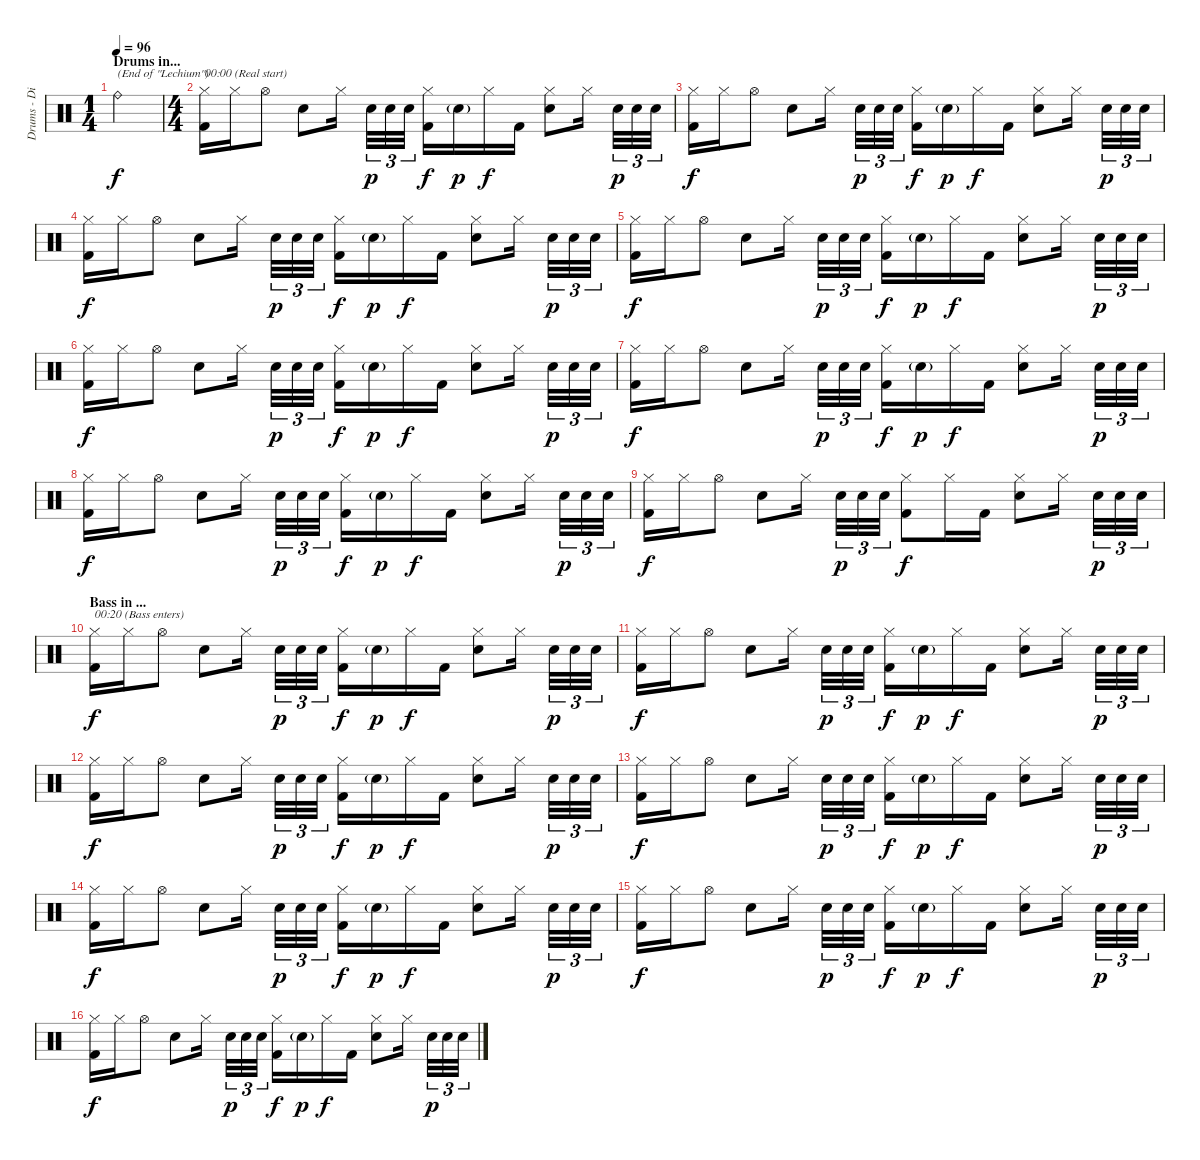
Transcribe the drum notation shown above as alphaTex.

\track ("Drums - Dino Campanella" "Drums - Di") {instrument percussion}
\staff {score}
\articulation defaults
\ts (1 4)
\section ("" "Drums in...")
\tempo 96
\clef neutral
\ks c "Ride (bell)".4{txt "(End of \"Lechium\")" dy f}
|
\ts (4 4)
("Hi-Hat (closed)" "Kick (hit) 2").16{txt "00:00 (Real start)"} "Hi-Hat (closed)".16 "Hi-Hat (open)".8 "Electric Snare (hit)".8 "Hi-Hat (closed)".16 "Electric Snare (hit)".32{tu (3 2) dy p} "Electric Snare (hit)".32{tu (3 2)} "Electric Snare (hit)".32{tu (3 2)} ("Hi-Hat (closed)" "Kick (hit) 2").16{dy f} "Electric Snare (hit)"{g}.16{dy p} "Hi-Hat (closed)".16{dy f} "Kick (hit) 2".16 ("Hi-Hat (closed)" "Electric Snare (hit)").8 "Hi-Hat (closed)".16 "Electric Snare (hit)".32{tu (3 2) dy p} "Electric Snare (hit)".32{tu (3 2)} "Electric Snare (hit)".32{tu (3 2)} |
("Hi-Hat (closed)" "Kick (hit) 2").16{dy f} "Hi-Hat (closed)".16 "Hi-Hat (open)".8 "Electric Snare (hit)".8 "Hi-Hat (closed)".16 "Electric Snare (hit)".32{tu (3 2) dy p} "Electric Snare (hit)".32{tu (3 2)} "Electric Snare (hit)".32{tu (3 2)} ("Hi-Hat (closed)" "Kick (hit) 2").16{dy f} "Electric Snare (hit)"{g}.16{dy p} "Hi-Hat (closed)".16{dy f} "Kick (hit) 2".16 ("Hi-Hat (closed)" "Electric Snare (hit)").8 "Hi-Hat (closed)".16 "Electric Snare (hit)".32{tu (3 2) dy p} "Electric Snare (hit)".32{tu (3 2)} "Electric Snare (hit)".32{tu (3 2)} |
("Hi-Hat (closed)" "Kick (hit) 2").16{dy f} "Hi-Hat (closed)".16 "Hi-Hat (open)".8 "Electric Snare (hit)".8 "Hi-Hat (closed)".16 "Electric Snare (hit)".32{tu (3 2) dy p} "Electric Snare (hit)".32{tu (3 2)} "Electric Snare (hit)".32{tu (3 2)} ("Hi-Hat (closed)" "Kick (hit) 2").16{dy f} "Electric Snare (hit)"{g}.16{dy p} "Hi-Hat (closed)".16{dy f} "Kick (hit) 2".16 ("Hi-Hat (closed)" "Electric Snare (hit)").8 "Hi-Hat (closed)".16 "Electric Snare (hit)".32{tu (3 2) dy p} "Electric Snare (hit)".32{tu (3 2)} "Electric Snare (hit)".32{tu (3 2)} |
("Hi-Hat (closed)" "Kick (hit) 2").16{dy f} "Hi-Hat (closed)".16 "Hi-Hat (open)".8 "Electric Snare (hit)".8 "Hi-Hat (closed)".16 "Electric Snare (hit)".32{tu (3 2) dy p} "Electric Snare (hit)".32{tu (3 2)} "Electric Snare (hit)".32{tu (3 2)} ("Hi-Hat (closed)" "Kick (hit) 2").16{dy f} "Electric Snare (hit)"{g}.16{dy p} "Hi-Hat (closed)".16{dy f} "Kick (hit) 2".16 ("Hi-Hat (closed)" "Electric Snare (hit)").8 "Hi-Hat (closed)".16 "Electric Snare (hit)".32{tu (3 2) dy p} "Electric Snare (hit)".32{tu (3 2)} "Electric Snare (hit)".32{tu (3 2)} |
("Hi-Hat (closed)" "Kick (hit) 2").16{dy f} "Hi-Hat (closed)".16 "Hi-Hat (open)".8 "Electric Snare (hit)".8 "Hi-Hat (closed)".16 "Electric Snare (hit)".32{tu (3 2) dy p} "Electric Snare (hit)".32{tu (3 2)} "Electric Snare (hit)".32{tu (3 2)} ("Hi-Hat (closed)" "Kick (hit) 2").16{dy f} "Electric Snare (hit)"{g}.16{dy p} "Hi-Hat (closed)".16{dy f} "Kick (hit) 2".16 ("Hi-Hat (closed)" "Electric Snare (hit)").8 "Hi-Hat (closed)".16 "Electric Snare (hit)".32{tu (3 2) dy p} "Electric Snare (hit)".32{tu (3 2)} "Electric Snare (hit)".32{tu (3 2)} |
("Hi-Hat (closed)" "Kick (hit) 2").16{dy f} "Hi-Hat (closed)".16 "Hi-Hat (open)".8 "Electric Snare (hit)".8 "Hi-Hat (closed)".16 "Electric Snare (hit)".32{tu (3 2) dy p} "Electric Snare (hit)".32{tu (3 2)} "Electric Snare (hit)".32{tu (3 2)} ("Hi-Hat (closed)" "Kick (hit) 2").16{dy f} "Electric Snare (hit)"{g}.16{dy p} "Hi-Hat (closed)".16{dy f} "Kick (hit) 2".16 ("Hi-Hat (closed)" "Electric Snare (hit)").8 "Hi-Hat (closed)".16 "Electric Snare (hit)".32{tu (3 2) dy p} "Electric Snare (hit)".32{tu (3 2)} "Electric Snare (hit)".32{tu (3 2)} |
("Hi-Hat (closed)" "Kick (hit) 2").16{dy f} "Hi-Hat (closed)".16 "Hi-Hat (open)".8 "Electric Snare (hit)".8 "Hi-Hat (closed)".16 "Electric Snare (hit)".32{tu (3 2) dy p} "Electric Snare (hit)".32{tu (3 2)} "Electric Snare (hit)".32{tu (3 2)} ("Hi-Hat (closed)" "Kick (hit) 2").16{dy f} "Electric Snare (hit)"{g}.16{dy p} "Hi-Hat (closed)".16{dy f} "Kick (hit) 2".16 ("Hi-Hat (closed)" "Electric Snare (hit)").8 "Hi-Hat (closed)".16 "Electric Snare (hit)".32{tu (3 2) dy p} "Electric Snare (hit)".32{tu (3 2)} "Electric Snare (hit)".32{tu (3 2)} |
("Hi-Hat (closed)" "Kick (hit) 2").16{dy f} "Hi-Hat (closed)".16 "Hi-Hat (open)".8 "Electric Snare (hit)".8 "Hi-Hat (closed)".16 "Electric Snare (hit)".32{tu (3 2) dy p} "Electric Snare (hit)".32{tu (3 2)} "Electric Snare (hit)".32{tu (3 2)} ("Hi-Hat (closed)" "Kick (hit) 2").8{dy f} "Hi-Hat (closed)".16 "Kick (hit) 2".16 ("Hi-Hat (closed)" "Electric Snare (hit)").8 "Hi-Hat (closed)".16 "Electric Snare (hit)".32{tu (3 2) dy p} "Electric Snare (hit)".32{tu (3 2)} "Electric Snare (hit)".32{tu (3 2)} |
\section ("" "Bass in ...")
("Hi-Hat (closed)" "Kick (hit) 2").16{txt "00:20 (Bass enters)" dy f} "Hi-Hat (closed)".16 "Hi-Hat (open)".8 "Electric Snare (hit)".8 "Hi-Hat (closed)".16 "Electric Snare (hit)".32{tu (3 2) dy p} "Electric Snare (hit)".32{tu (3 2)} "Electric Snare (hit)".32{tu (3 2)} ("Hi-Hat (closed)" "Kick (hit) 2").16{dy f} "Electric Snare (hit)"{g}.16{dy p} "Hi-Hat (closed)".16{dy f} "Kick (hit) 2".16 ("Hi-Hat (closed)" "Electric Snare (hit)").8 "Hi-Hat (closed)".16 "Electric Snare (hit)".32{tu (3 2) dy p} "Electric Snare (hit)".32{tu (3 2)} "Electric Snare (hit)".32{tu (3 2)} |
("Hi-Hat (closed)" "Kick (hit) 2").16{dy f} "Hi-Hat (closed)".16 "Hi-Hat (open)".8 "Electric Snare (hit)".8 "Hi-Hat (closed)".16 "Electric Snare (hit)".32{tu (3 2) dy p} "Electric Snare (hit)".32{tu (3 2)} "Electric Snare (hit)".32{tu (3 2)} ("Hi-Hat (closed)" "Kick (hit) 2").16{dy f} "Electric Snare (hit)"{g}.16{dy p} "Hi-Hat (closed)".16{dy f} "Kick (hit) 2".16 ("Hi-Hat (closed)" "Electric Snare (hit)").8 "Hi-Hat (closed)".16 "Electric Snare (hit)".32{tu (3 2) dy p} "Electric Snare (hit)".32{tu (3 2)} "Electric Snare (hit)".32{tu (3 2)} |
("Hi-Hat (closed)" "Kick (hit) 2").16{dy f} "Hi-Hat (closed)".16 "Hi-Hat (open)".8 "Electric Snare (hit)".8 "Hi-Hat (closed)".16 "Electric Snare (hit)".32{tu (3 2) dy p} "Electric Snare (hit)".32{tu (3 2)} "Electric Snare (hit)".32{tu (3 2)} ("Hi-Hat (closed)" "Kick (hit) 2").16{dy f} "Electric Snare (hit)"{g}.16{dy p} "Hi-Hat (closed)".16{dy f} "Kick (hit) 2".16 ("Hi-Hat (closed)" "Electric Snare (hit)").8 "Hi-Hat (closed)".16 "Electric Snare (hit)".32{tu (3 2) dy p} "Electric Snare (hit)".32{tu (3 2)} "Electric Snare (hit)".32{tu (3 2)} |
("Hi-Hat (closed)" "Kick (hit) 2").16{dy f} "Hi-Hat (closed)".16 "Hi-Hat (open)".8 "Electric Snare (hit)".8 "Hi-Hat (closed)".16 "Electric Snare (hit)".32{tu (3 2) dy p} "Electric Snare (hit)".32{tu (3 2)} "Electric Snare (hit)".32{tu (3 2)} ("Hi-Hat (closed)" "Kick (hit) 2").16{dy f} "Electric Snare (hit)"{g}.16{dy p} "Hi-Hat (closed)".16{dy f} "Kick (hit) 2".16 ("Hi-Hat (closed)" "Electric Snare (hit)").8 "Hi-Hat (closed)".16 "Electric Snare (hit)".32{tu (3 2) dy p} "Electric Snare (hit)".32{tu (3 2)} "Electric Snare (hit)".32{tu (3 2)} |
("Hi-Hat (closed)" "Kick (hit) 2").16{dy f} "Hi-Hat (closed)".16 "Hi-Hat (open)".8 "Electric Snare (hit)".8 "Hi-Hat (closed)".16 "Electric Snare (hit)".32{tu (3 2) dy p} "Electric Snare (hit)".32{tu (3 2)} "Electric Snare (hit)".32{tu (3 2)} ("Hi-Hat (closed)" "Kick (hit) 2").16{dy f} "Electric Snare (hit)"{g}.16{dy p} "Hi-Hat (closed)".16{dy f} "Kick (hit) 2".16 ("Hi-Hat (closed)" "Electric Snare (hit)").8 "Hi-Hat (closed)".16 "Electric Snare (hit)".32{tu (3 2) dy p} "Electric Snare (hit)".32{tu (3 2)} "Electric Snare (hit)".32{tu (3 2)} |
("Hi-Hat (closed)" "Kick (hit) 2").16{dy f} "Hi-Hat (closed)".16 "Hi-Hat (open)".8 "Electric Snare (hit)".8 "Hi-Hat (closed)".16 "Electric Snare (hit)".32{tu (3 2) dy p} "Electric Snare (hit)".32{tu (3 2)} "Electric Snare (hit)".32{tu (3 2)} ("Hi-Hat (closed)" "Kick (hit) 2").16{dy f} "Electric Snare (hit)"{g}.16{dy p} "Hi-Hat (closed)".16{dy f} "Kick (hit) 2".16 ("Hi-Hat (closed)" "Electric Snare (hit)").8 "Hi-Hat (closed)".16 "Electric Snare (hit)".32{tu (3 2) dy p} "Electric Snare (hit)".32{tu (3 2)} "Electric Snare (hit)".32{tu (3 2)} |
("Hi-Hat (closed)" "Kick (hit) 2").16{dy f} "Hi-Hat (closed)".16 "Hi-Hat (open)".8 "Electric Snare (hit)".8 "Hi-Hat (closed)".16 "Electric Snare (hit)".32{tu (3 2) dy p} "Electric Snare (hit)".32{tu (3 2)} "Electric Snare (hit)".32{tu (3 2)} ("Hi-Hat (closed)" "Kick (hit) 2").16{dy f} "Electric Snare (hit)"{g}.16{dy p} "Hi-Hat (closed)".16{dy f} "Kick (hit) 2".16 ("Hi-Hat (closed)" "Electric Snare (hit)").8 "Hi-Hat (closed)".16 "Electric Snare (hit)".32{tu (3 2) dy p} "Electric Snare (hit)".32{tu (3 2)} "Electric Snare (hit)".32{tu (3 2)}
